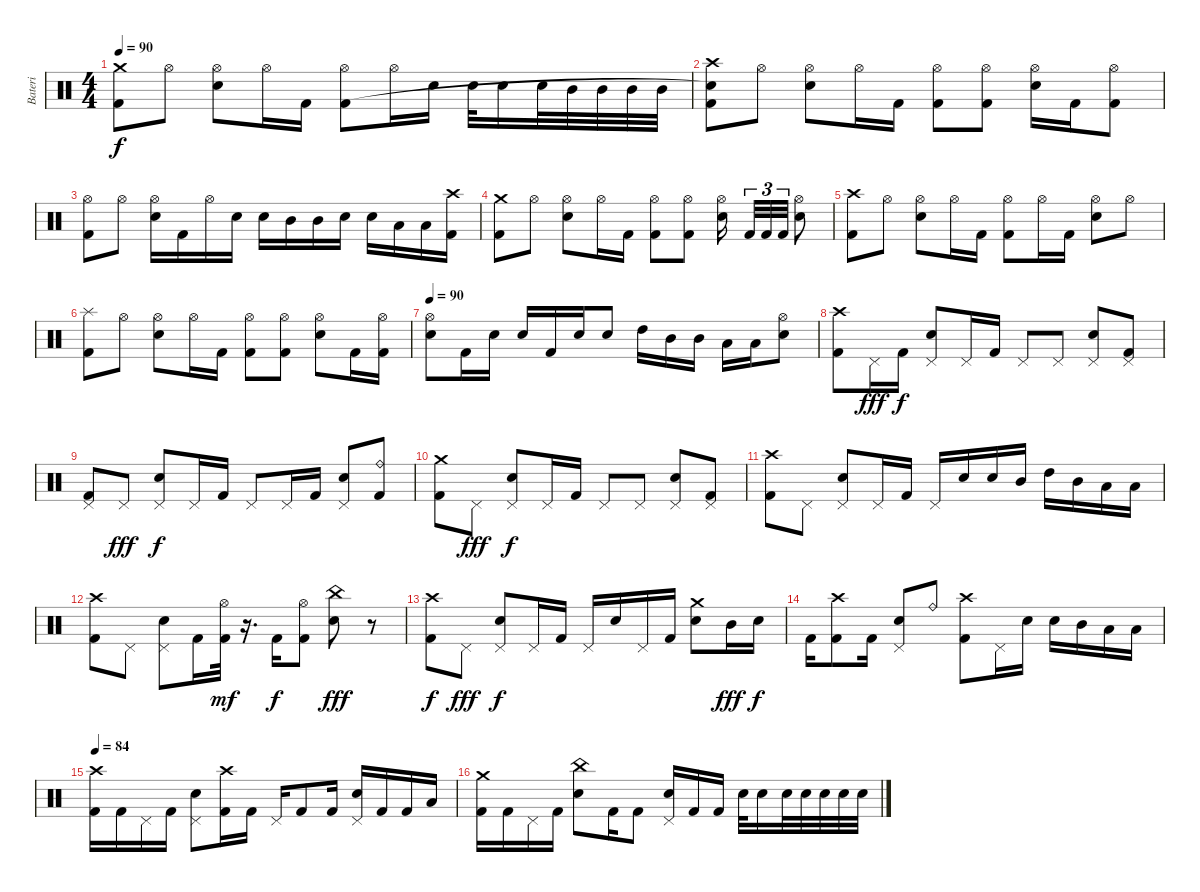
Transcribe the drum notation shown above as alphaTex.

\track ("Bateri" "Bateri") {instrument percussion}
\staff {score}
\articulation defaults
\ts (4 4)
\tempo 90
\clef neutral
\ks c
("Crash medium (hit)" "Kick (hit) 2").8{dy f} "Hi-Hat (open)".8 ("Hi-Hat (open)" "Electric Snare (hit)").8 "Hi-Hat (open)".16 "Kick (hit) 2".16 ("Hi-Hat (open)" "Kick (hit) 2").8 "Hi-Hat (open)".16 "Electric Snare (hit)".16 "Electric Snare (hit)".32 "Electric Snare (hit)".16 "Electric Snare (hit)".32 "Mid Tom (hit)".32 "Mid Tom (hit)".32 "Mid Tom (hit)".32 "Mid Tom (hit)".32 |
("Crash high (hit)" "Electric Snare (hit)"{t} "Kick (hit) 2").8 "Hi-Hat (open)".8 ("Hi-Hat (open)" "Electric Snare (hit)").8 "Hi-Hat (open)".16 "Kick (hit) 2".16 ("Hi-Hat (open)" "Kick (hit) 2").8 ("Hi-Hat (open)" "Kick (hit) 2").8 ("Hi-Hat (open)" "Electric Snare (hit)").16 "Kick (hit) 2".16 ("Hi-Hat (open)" "Kick (hit) 2").8 |
("Hi-Hat (open)" "Kick (hit) 2").8 "Hi-Hat (open)".8 ("Hi-Hat (open)" "Electric Snare (hit)").16 "Kick (hit) 2".16 "Hi-Hat (open)".16 "Electric Snare (hit)".16 "Electric Snare (hit)".16 "Mid Tom (hit)".16 "Mid Tom (hit)".16 "Electric Snare (hit)".16 "Electric Snare (hit)".16 "Low Tom (hit)".16 "Low Tom (hit)".16 ("Crash high (hit)" "Kick (hit) 2").16 |
("Crash medium (hit)" "Kick (hit) 2").8 "Hi-Hat (open)".8 ("Hi-Hat (open)" "Electric Snare (hit)").8 "Hi-Hat (open)".16 "Kick (hit) 2".16 ("Hi-Hat (open)" "Kick (hit) 2").8 ("Hi-Hat (open)" "Kick (hit) 2").8 ("Hi-Hat (open)" "Electric Snare (hit)").16 "Kick (hit) 2".32{tu (3 2)} "Kick (hit) 2".32{tu (3 2)} "Kick (hit) 2".32{tu (3 2)} ("Hi-Hat (open)" "Electric Snare (hit)").8 |
("Crash high (hit)" "Kick (hit) 2").8 "Hi-Hat (open)".8 ("Hi-Hat (open)" "Electric Snare (hit)").8 "Hi-Hat (open)".16 "Kick (hit) 2".16 ("Hi-Hat (open)" "Kick (hit) 2").8 "Hi-Hat (open)".16 "Kick (hit) 2".16 ("Hi-Hat (open)" "Electric Snare (hit)").8 "Hi-Hat (open)".8 |
("Splash (hit)" "Kick (hit) 2").8 "Hi-Hat (open)".8 ("Hi-Hat (open)" "Electric Snare (hit)").8 "Hi-Hat (open)".16 "Kick (hit) 2".16 ("Hi-Hat (open)" "Kick (hit) 2").8 ("Hi-Hat (open)" "Kick (hit) 2").8 ("Hi-Hat (open)" "Electric Snare (hit)").8 "Kick (hit) 2".16 ("Hi-Hat (open)" "Kick (hit) 2").16 |
\tempo 90
("Hi-Hat (open)" "Electric Snare (hit)").8 "Kick (hit) 2".16 "Electric Snare (hit)".16 "Electric Snare (hit)".16 "Kick (hit) 2".16 "Electric Snare (hit)".16 "Electric Snare (hit)".8 "High Tom (hit)".16 "Mid Tom (hit)".16 "Mid Tom (hit)".16 "Low Tom (hit)".16 "Low Tom (hit)".16 ("Hi-Hat (open)" "Electric Snare (hit)").8 |
("Crash high (hit)" "Kick (hit) 2").8 "Pedal Hi-Hat (hit)".16{dy fff} "Kick (hit) 2".16{dy f} ("Pedal Hi-Hat (hit)" "Electric Snare (hit)").8 "Pedal Hi-Hat (hit)".16 "Kick (hit) 2".16 "Pedal Hi-Hat (hit)".8 "Pedal Hi-Hat (hit)".8 ("Pedal Hi-Hat (hit)" "Electric Snare (hit)").8 ("Pedal Hi-Hat (hit)" "Kick (hit) 2").8 |
("Pedal Hi-Hat (hit)" "Kick (hit) 2").8 "Pedal Hi-Hat (hit)".8{dy fff} ("Pedal Hi-Hat (hit)" "Electric Snare (hit)").8{dy f} "Pedal Hi-Hat (hit)".16 "Kick (hit) 2".16 "Pedal Hi-Hat (hit)".8 "Pedal Hi-Hat (hit)".16 "Kick (hit) 2".16 ("Pedal Hi-Hat (hit)" "Electric Snare (hit)").8 ("Ride (bell)" "Kick (hit) 2").8 |
("Crash medium (hit)" "Kick (hit) 2").8 "Pedal Hi-Hat (hit)".8{dy fff} ("Pedal Hi-Hat (hit)" "Electric Snare (hit)").8{dy f} "Pedal Hi-Hat (hit)".16 "Kick (hit) 2".16 "Pedal Hi-Hat (hit)".8 "Pedal Hi-Hat (hit)".8 ("Pedal Hi-Hat (hit)" "Electric Snare (hit)").8 ("Pedal Hi-Hat (hit)" "Kick (hit) 2").8 |
("Crash high (hit)" "Kick (hit) 2").8 "Pedal Hi-Hat (hit)".8 ("Pedal Hi-Hat (hit)" "Electric Snare (hit)").8 "Pedal Hi-Hat (hit)".16 "Kick (hit) 2".16 "Pedal Hi-Hat (hit)".16 "Electric Snare (hit)".16 "Electric Snare (hit)".16 "Mid Tom (hit)".16 "High Tom (hit)".16 "Mid Tom (hit)".16 "Low Tom (hit)".16 "Low Tom (hit)".16 |
("Crash high (hit)" "Kick (hit) 2").8 "Pedal Hi-Hat (hit)".8 ("Pedal Hi-Hat (hit)" "Electric Snare (hit)").8 "Kick (hit) 2".16 ("Hi-Hat (open)" "Kick (hit) 2").32{dy mf} r.16{d} "Kick (hit) 2".16{dy f} ("Hi-Hat (open)" "Kick (hit) 2").8 ("China (hit)" "Electric Snare (hit)").8{dy fff} r.8 |
("Crash high (hit)" "Kick (hit) 2").8{dy f} "Pedal Hi-Hat (hit)".8{dy fff} ("Pedal Hi-Hat (hit)" "Electric Snare (hit)").8{dy f} "Pedal Hi-Hat (hit)".16 "Kick (hit) 2".16 "Pedal Hi-Hat (hit)".16 "Electric Snare (hit)".16 "Pedal Hi-Hat (hit)".16 "Kick (hit) 2".16 ("Crash medium (hit)" "Electric Snare (hit)").8 "Mid Tom (hit)".16{dy fff} "Electric Snare (hit)".16{dy f} |
"Kick (hit) 2".16 ("Crash high (hit)" "Kick (hit) 2").8 "Kick (hit) 2".16 ("Pedal Hi-Hat (hit)" "Electric Snare (hit)").8 "Ride (bell)".8 ("Crash high (hit)" "Kick (hit) 2").8 "Pedal Hi-Hat (hit)".16 "Electric Snare (hit)".16 "Electric Snare (hit)".16 "Mid Tom (hit)".16 "Low Tom (hit)".16 "Low Tom (hit)".16 |
\tempo 84
("Crash high (hit)" "Kick (hit) 2").16 "Kick (hit) 2".16 "Pedal Hi-Hat (hit)".16 "Kick (hit) 2".16 ("Pedal Hi-Hat (hit)" "Electric Snare (hit)").8 ("Crash high (hit)" "Kick (hit) 2").16 "Kick (hit) 2".16 "Pedal Hi-Hat (hit)".16 "Kick (hit) 2".8 "Kick (hit) 2".16 ("Pedal Hi-Hat (hit)" "Electric Snare (hit)").16 "Kick (hit) 2".16 "Kick (hit) 2".16 "Low Tom (hit)".16 |
("Crash medium (hit)" "Kick (hit) 2").16 "Kick (hit) 2".16 "Pedal Hi-Hat (hit)".16 "Kick (hit) 2".16 ("China (hit)" "Electric Snare (hit)").8 "Kick (hit) 2".16 "Kick (hit) 2".8 ("Pedal Hi-Hat (hit)" "Electric Snare (hit)").16 "Kick (hit) 2".16 "Kick (hit) 2".16 "Electric Snare (hit)".32 "Electric Snare (hit)".16 "Electric Snare (hit)".32 "Electric Snare (hit)".32 "Electric Snare (hit)".32 "Electric Snare (hit)".32 "Electric Snare (hit)".32
